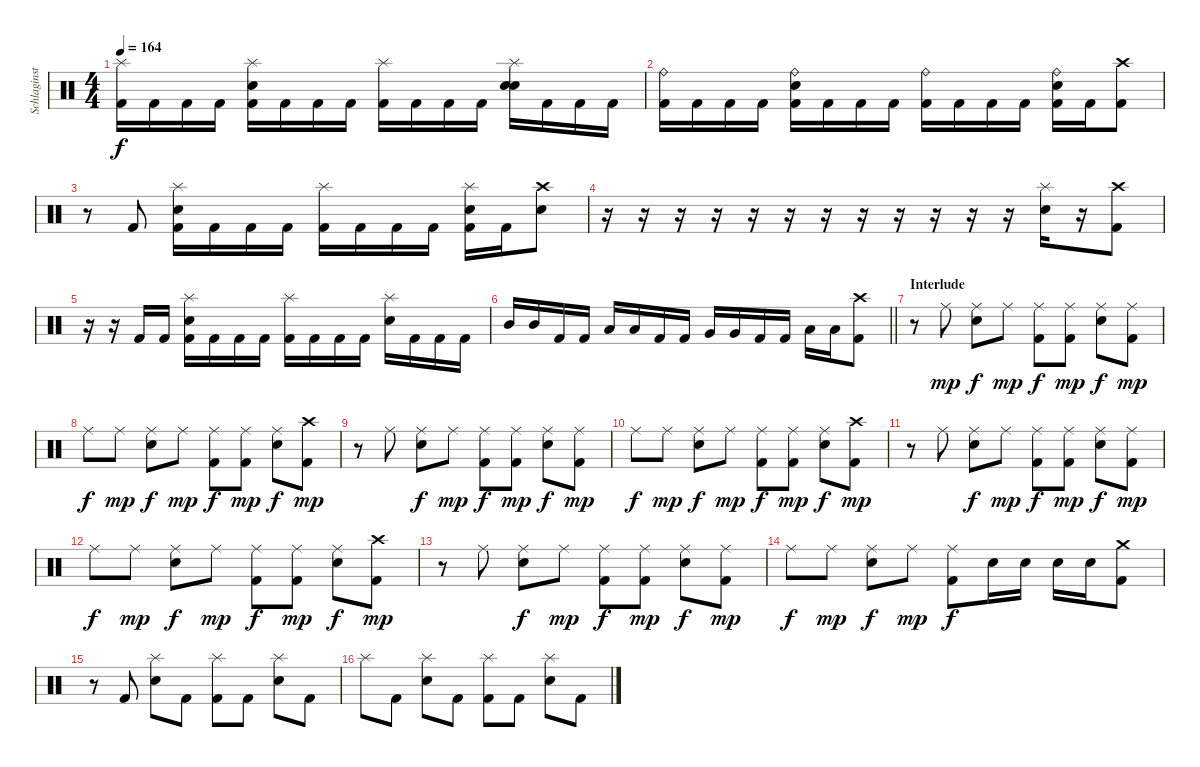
\track ("Schlaginstrumente - Auswahl" "Schlaginst") {instrument percussion}
\staff {score}
\articulation defaults
\ts (4 4)
\tempo 164
\clef neutral
\ks c
("Splash (hit)" "Kick (hit) 2").16{dy f} "Kick (hit) 2".16 "Kick (hit) 2".16 "Kick (hit) 2".16 ("Splash (hit)" "Electric Snare (hit)" "Kick (hit) 2").16 "Kick (hit) 2".16 "Kick (hit) 2".16 "Kick (hit) 2".16 ("Splash (hit)" "Kick (hit) 2").16 "Kick (hit) 2".16 "Kick (hit) 2".16 "Kick (hit) 2".16 ("Splash (hit)" "Electric Snare (hit)" "Electric Snare (hit)").16 "Kick (hit) 2".16 "Kick (hit) 2".16 "Kick (hit) 2".16 |
("Ride (bell)" "Kick (hit) 2").16 "Kick (hit) 2".16 "Kick (hit) 2".16 "Kick (hit) 2".16 ("Ride (bell)" "Electric Snare (hit)" "Kick (hit) 2").16 "Kick (hit) 2".16 "Kick (hit) 2".16 "Kick (hit) 2".16 ("Ride (bell)" "Kick (hit) 2").16 "Kick (hit) 2".16 "Kick (hit) 2".16 "Kick (hit) 2".16 ("Ride (bell)" "Electric Snare (hit)" "Kick (hit) 2").16 "Kick (hit) 2".16 ("Crash high (hit)" "Kick (hit) 2").8 |
r.8 "Kick (hit) 2".8 ("Splash (hit)" "Electric Snare (hit)" "Kick (hit) 2").16 "Kick (hit) 2".16 "Kick (hit) 2".16 "Kick (hit) 2".16 ("Splash (hit)" "Kick (hit) 2").16 "Kick (hit) 2".16 "Kick (hit) 2".16 "Kick (hit) 2".16 ("Splash (hit)" "Electric Snare (hit)" "Kick (hit) 2").16 "Kick (hit) 2".16 ("Crash high (hit)" "Electric Snare (hit)").8 |
r.16 r.16 r.16 r.16 r.16 r.16 r.16 r.16 r.16 r.16 r.16 r.16 ("Splash (hit)" "Electric Snare (hit)").16 r.16 ("Crash high (hit)" "Kick (hit) 2").8 |
r.16 r.16 "Kick (hit) 2".16 "Kick (hit) 2".16 ("Splash (hit)" "Electric Snare (hit)" "Kick (hit) 2").16 "Kick (hit) 2".16 "Kick (hit) 2".16 "Kick (hit) 2".16 ("Splash (hit)" "Kick (hit) 2").16 "Kick (hit) 2".16 "Kick (hit) 2".16 "Kick (hit) 2".16 ("Splash (hit)" "Electric Snare (hit)").16 "Kick (hit) 2".16 "Kick (hit) 2".16 "Kick (hit) 2".16 |
\barLineRight lightlight "Mid Tom (hit)".16 "Mid Tom (hit)".16 "Kick (hit) 2".16 "Kick (hit) 2".16 "Low Tom (hit)".16 "Low Tom (hit)".16 "Kick (hit) 2".16 "Kick (hit) 2".16 "Very Low Tom (hit)".16 "Very Low Tom (hit)".16 "Kick (hit) 2".16 "Kick (hit) 2".16 "Low Floor Tom (hit)".16 "Low Floor Tom (hit)".16
("Kick (hit) 2" "Crash high (hit)").8 |
\section ("" "Interlude")
r.8 "Ride (middle)".8{dy mp} ("Ride (middle)" "Electric Snare (hit)").8{dy f} "Ride (middle)".8{dy mp} ("Ride (middle)" "Kick (hit) 2").8{dy f} ("Ride (middle)" "Kick (hit) 2").8{dy mp} ("Ride (middle)" "Electric Snare (hit)").8{dy f} ("Ride (middle)" "Kick (hit) 2").8{dy mp} |
"Ride (middle)".8{dy f} "Ride (middle)".8{dy mp} ("Ride (middle)" "Electric Snare (hit)").8{dy f} "Ride (middle)".8{dy mp} ("Ride (middle)" "Kick (hit) 2").8{dy f} ("Ride (middle)" "Kick (hit) 2").8{dy mp} ("Ride (middle)" "Electric Snare (hit)").8{dy f} ("Crash high (hit)" "Kick (hit) 2").8{dy mp} |
r.8 "Ride (middle)".8 ("Ride (middle)" "Electric Snare (hit)").8{dy f} "Ride (middle)".8{dy mp} ("Ride (middle)" "Kick (hit) 2").8{dy f} ("Ride (middle)" "Kick (hit) 2").8{dy mp} ("Ride (middle)" "Electric Snare (hit)").8{dy f} ("Ride (middle)" "Kick (hit) 2").8{dy mp} |
"Ride (middle)".8{dy f} "Ride (middle)".8{dy mp} ("Ride (middle)" "Electric Snare (hit)").8{dy f} "Ride (middle)".8{dy mp} ("Ride (middle)" "Kick (hit) 2").8{dy f} ("Ride (middle)" "Kick (hit) 2").8{dy mp} ("Ride (middle)" "Electric Snare (hit)").8{dy f} ("Crash high (hit)" "Kick (hit) 2").8{dy mp} |
r.8 "Ride (middle)".8 ("Ride (middle)" "Electric Snare (hit)").8{dy f} "Ride (middle)".8{dy mp} ("Ride (middle)" "Kick (hit) 2").8{dy f} ("Ride (middle)" "Kick (hit) 2").8{dy mp} ("Ride (middle)" "Electric Snare (hit)").8{dy f} ("Ride (middle)" "Kick (hit) 2").8{dy mp} |
"Ride (middle)".8{dy f} "Ride (middle)".8{dy mp} ("Ride (middle)" "Electric Snare (hit)").8{dy f} "Ride (middle)".8{dy mp} ("Ride (middle)" "Kick (hit) 2").8{dy f} ("Ride (middle)" "Kick (hit) 2").8{dy mp} ("Ride (middle)" "Electric Snare (hit)").8{dy f} ("Crash high (hit)" "Kick (hit) 2").8{dy mp} |
r.8 "Ride (middle)".8 ("Ride (middle)" "Electric Snare (hit)").8{dy f} "Ride (middle)".8{dy mp} ("Ride (middle)" "Kick (hit) 2").8{dy f} ("Ride (middle)" "Kick (hit) 2").8{dy mp} ("Ride (middle)" "Electric Snare (hit)").8{dy f} ("Ride (middle)" "Kick (hit) 2").8{dy mp} |
"Ride (middle)".8{dy f} "Ride (middle)".8{dy mp} ("Ride (middle)" "Electric Snare (hit)").8{dy f} "Ride (middle)".8{dy mp} ("Ride (middle)" "Kick (hit) 2").8{dy f} "Electric Snare (hit)".16 "Electric Snare (hit)".16 "Electric Snare (hit)".16 "Electric Snare (hit)".16 ("Crash medium (hit)" "Kick (hit) 2").8 |
r.8 "Kick (hit) 2".8 ("Splash (hit)" "Electric Snare (hit)").8 "Kick (hit) 2".8 ("Splash (hit)" "Kick (hit) 2").8 "Kick (hit) 2".8 ("Splash (hit)" "Electric Snare (hit)").8 "Kick (hit) 2".8 |
"Splash (hit)".8 "Kick (hit) 2".8 ("Splash (hit)" "Electric Snare (hit)").8 "Kick (hit) 2".8 ("Splash (hit)" "Kick (hit) 2").8 "Kick (hit) 2".8 ("Splash (hit)" "Electric Snare (hit)").8 "Kick (hit) 2".8
